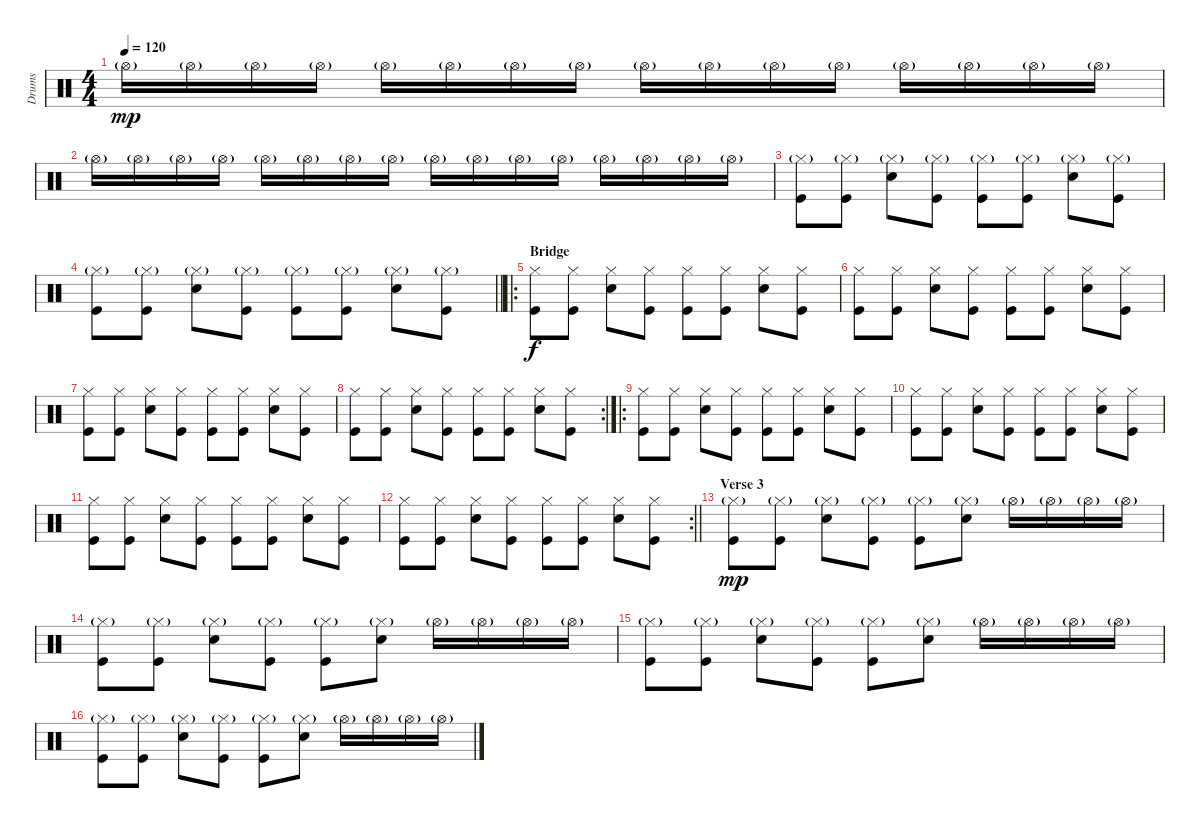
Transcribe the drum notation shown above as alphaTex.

\track ("Drums" "Drums") {instrument percussion}
\staff {score}
\articulation defaults
\ts (4 4)
\tempo 120
\clef neutral
\ks c "Hi-Hat (open)"{g}.16{dy mp} "Hi-Hat (open)"{g}.16 "Hi-Hat (open)"{g}.16 "Hi-Hat (open)"{g}.16 "Hi-Hat (open)"{g}.16 "Hi-Hat (open)"{g}.16 "Hi-Hat (open)"{g}.16 "Hi-Hat (open)"{g}.16 "Hi-Hat (open)"{g}.16 "Hi-Hat (open)"{g}.16 "Hi-Hat (open)"{g}.16 "Hi-Hat (open)"{g}.16 "Hi-Hat (open)"{g}.16 "Hi-Hat (open)"{g}.16 "Hi-Hat (open)"{g}.16 "Hi-Hat (open)"{g}.16
|
"Hi-Hat (open)"{g}.16 "Hi-Hat (open)"{g}.16 "Hi-Hat (open)"{g}.16 "Hi-Hat (open)"{g}.16 "Hi-Hat (open)"{g}.16 "Hi-Hat (open)"{g}.16 "Hi-Hat (open)"{g}.16 "Hi-Hat (open)"{g}.16 "Hi-Hat (open)"{g}.16 "Hi-Hat (open)"{g}.16 "Hi-Hat (open)"{g}.16 "Hi-Hat (open)"{g}.16 "Hi-Hat (open)"{g}.16 "Hi-Hat (open)"{g}.16 "Hi-Hat (open)"{g}.16 "Hi-Hat (open)"{g}.16 |
("Hi-Hat (closed)"{g} "Kick (hit)").8 ("Hi-Hat (closed)"{g} "Kick (hit)").8 ("Hi-Hat (closed)"{g} "Electric Snare (hit)").8 ("Hi-Hat (closed)"{g} "Kick (hit)").8 ("Hi-Hat (closed)"{g} "Kick (hit)").8 ("Hi-Hat (closed)"{g} "Kick (hit)").8 ("Hi-Hat (closed)"{g} "Electric Snare (hit)").8 ("Hi-Hat (closed)"{g} "Kick (hit)").8 |
\barLineRight lightlight
("Hi-Hat (closed)"{g} "Kick (hit)").8 ("Hi-Hat (closed)"{g} "Kick (hit)").8 ("Hi-Hat (closed)"{g} "Electric Snare (hit)").8 ("Hi-Hat (closed)"{g} "Kick (hit)").8 ("Hi-Hat (closed)"{g} "Kick (hit)").8 ("Hi-Hat (closed)"{g} "Kick (hit)").8 ("Hi-Hat (closed)"{g} "Electric Snare (hit)").8 ("Hi-Hat (closed)"{g} "Kick (hit)").8 |
\ro
\section ("" "Bridge")
("Hi-Hat (closed)" "Kick (hit)").8{dy f} ("Hi-Hat (closed)" "Kick (hit)").8 ("Hi-Hat (closed)" "Electric Snare (hit)").8 ("Hi-Hat (closed)" "Kick (hit)").8 ("Hi-Hat (closed)" "Kick (hit)").8 ("Hi-Hat (closed)" "Kick (hit)").8 ("Hi-Hat (closed)" "Electric Snare (hit)").8 ("Hi-Hat (closed)" "Kick (hit)").8 |
("Hi-Hat (closed)" "Kick (hit)").8 ("Hi-Hat (closed)" "Kick (hit)").8 ("Hi-Hat (closed)" "Electric Snare (hit)").8 ("Hi-Hat (closed)" "Kick (hit)").8 ("Hi-Hat (closed)" "Kick (hit)").8 ("Hi-Hat (closed)" "Kick (hit)").8 ("Hi-Hat (closed)" "Electric Snare (hit)").8 ("Hi-Hat (closed)" "Kick (hit)").8 |
("Hi-Hat (closed)" "Kick (hit)").8 ("Hi-Hat (closed)" "Kick (hit)").8 ("Hi-Hat (closed)" "Electric Snare (hit)").8 ("Hi-Hat (closed)" "Kick (hit)").8 ("Hi-Hat (closed)" "Kick (hit)").8 ("Hi-Hat (closed)" "Kick (hit)").8 ("Hi-Hat (closed)" "Electric Snare (hit)").8 ("Hi-Hat (closed)" "Kick (hit)").8 |
\rc 2
("Hi-Hat (closed)" "Kick (hit)").8 ("Hi-Hat (closed)" "Kick (hit)").8 ("Hi-Hat (closed)" "Electric Snare (hit)").8 ("Hi-Hat (closed)" "Kick (hit)").8 ("Hi-Hat (closed)" "Kick (hit)").8 ("Hi-Hat (closed)" "Kick (hit)").8 ("Hi-Hat (closed)" "Electric Snare (hit)").8 ("Hi-Hat (closed)" "Kick (hit)").8 |
\ro
("Hi-Hat (closed)" "Kick (hit)").8 ("Hi-Hat (closed)" "Kick (hit)").8 ("Hi-Hat (closed)" "Electric Snare (hit)").8 ("Hi-Hat (closed)" "Kick (hit)").8 ("Hi-Hat (closed)" "Kick (hit)").8 ("Hi-Hat (closed)" "Kick (hit)").8 ("Hi-Hat (closed)" "Electric Snare (hit)").8 ("Hi-Hat (closed)" "Kick (hit)").8 |
("Hi-Hat (closed)" "Kick (hit)").8 ("Hi-Hat (closed)" "Kick (hit)").8 ("Hi-Hat (closed)" "Electric Snare (hit)").8 ("Hi-Hat (closed)" "Kick (hit)").8 ("Hi-Hat (closed)" "Kick (hit)").8 ("Hi-Hat (closed)" "Kick (hit)").8 ("Hi-Hat (closed)" "Electric Snare (hit)").8 ("Hi-Hat (closed)" "Kick (hit)").8 |
("Hi-Hat (closed)" "Kick (hit)").8 ("Hi-Hat (closed)" "Kick (hit)").8 ("Hi-Hat (closed)" "Electric Snare (hit)").8 ("Hi-Hat (closed)" "Kick (hit)").8 ("Hi-Hat (closed)" "Kick (hit)").8 ("Hi-Hat (closed)" "Kick (hit)").8 ("Hi-Hat (closed)" "Electric Snare (hit)").8 ("Hi-Hat (closed)" "Kick (hit)").8 |
\rc 2
\barLineRight lightlight
("Hi-Hat (closed)" "Kick (hit)").8 ("Hi-Hat (closed)" "Kick (hit)").8 ("Hi-Hat (closed)" "Electric Snare (hit)").8 ("Hi-Hat (closed)" "Kick (hit)").8 ("Hi-Hat (closed)" "Kick (hit)").8 ("Hi-Hat (closed)" "Kick (hit)").8 ("Hi-Hat (closed)" "Electric Snare (hit)").8 ("Hi-Hat (closed)" "Kick (hit)").8 |
\section ("" "Verse 3")
("Hi-Hat (closed)"{g} "Kick (hit)").8{dy mp} ("Hi-Hat (closed)"{g} "Kick (hit)").8 ("Hi-Hat (closed)"{g} "Electric Snare (hit)").8 ("Hi-Hat (closed)"{g} "Kick (hit)").8 ("Hi-Hat (closed)"{g} "Kick (hit)").8 ("Hi-Hat (closed)"{g} "Electric Snare (hit)").8 "Hi-Hat (open)"{g}.16 "Hi-Hat (open)"{g}.16 "Hi-Hat (open)"{g}.16 "Hi-Hat (open)"{g}.16 |
("Hi-Hat (closed)"{g} "Kick (hit)").8 ("Hi-Hat (closed)"{g} "Kick (hit)").8 ("Hi-Hat (closed)"{g} "Electric Snare (hit)").8 ("Hi-Hat (closed)"{g} "Kick (hit)").8 ("Hi-Hat (closed)"{g} "Kick (hit)").8 ("Hi-Hat (closed)"{g} "Electric Snare (hit)").8 "Hi-Hat (open)"{g}.16 "Hi-Hat (open)"{g}.16 "Hi-Hat (open)"{g}.16 "Hi-Hat (open)"{g}.16 |
("Hi-Hat (closed)"{g} "Kick (hit)").8 ("Hi-Hat (closed)"{g} "Kick (hit)").8 ("Hi-Hat (closed)"{g} "Electric Snare (hit)").8 ("Hi-Hat (closed)"{g} "Kick (hit)").8 ("Hi-Hat (closed)"{g} "Kick (hit)").8 ("Hi-Hat (closed)"{g} "Electric Snare (hit)").8 "Hi-Hat (open)"{g}.16 "Hi-Hat (open)"{g}.16 "Hi-Hat (open)"{g}.16 "Hi-Hat (open)"{g}.16 |
("Hi-Hat (closed)"{g} "Kick (hit)").8 ("Hi-Hat (closed)"{g} "Kick (hit)").8 ("Hi-Hat (closed)"{g} "Electric Snare (hit)").8 ("Hi-Hat (closed)"{g} "Kick (hit)").8 ("Hi-Hat (closed)"{g} "Kick (hit)").8 ("Hi-Hat (closed)"{g} "Electric Snare (hit)").8 "Hi-Hat (open)"{g}.16 "Hi-Hat (open)"{g}.16 "Hi-Hat (open)"{g}.16 "Hi-Hat (open)"{g}.16
